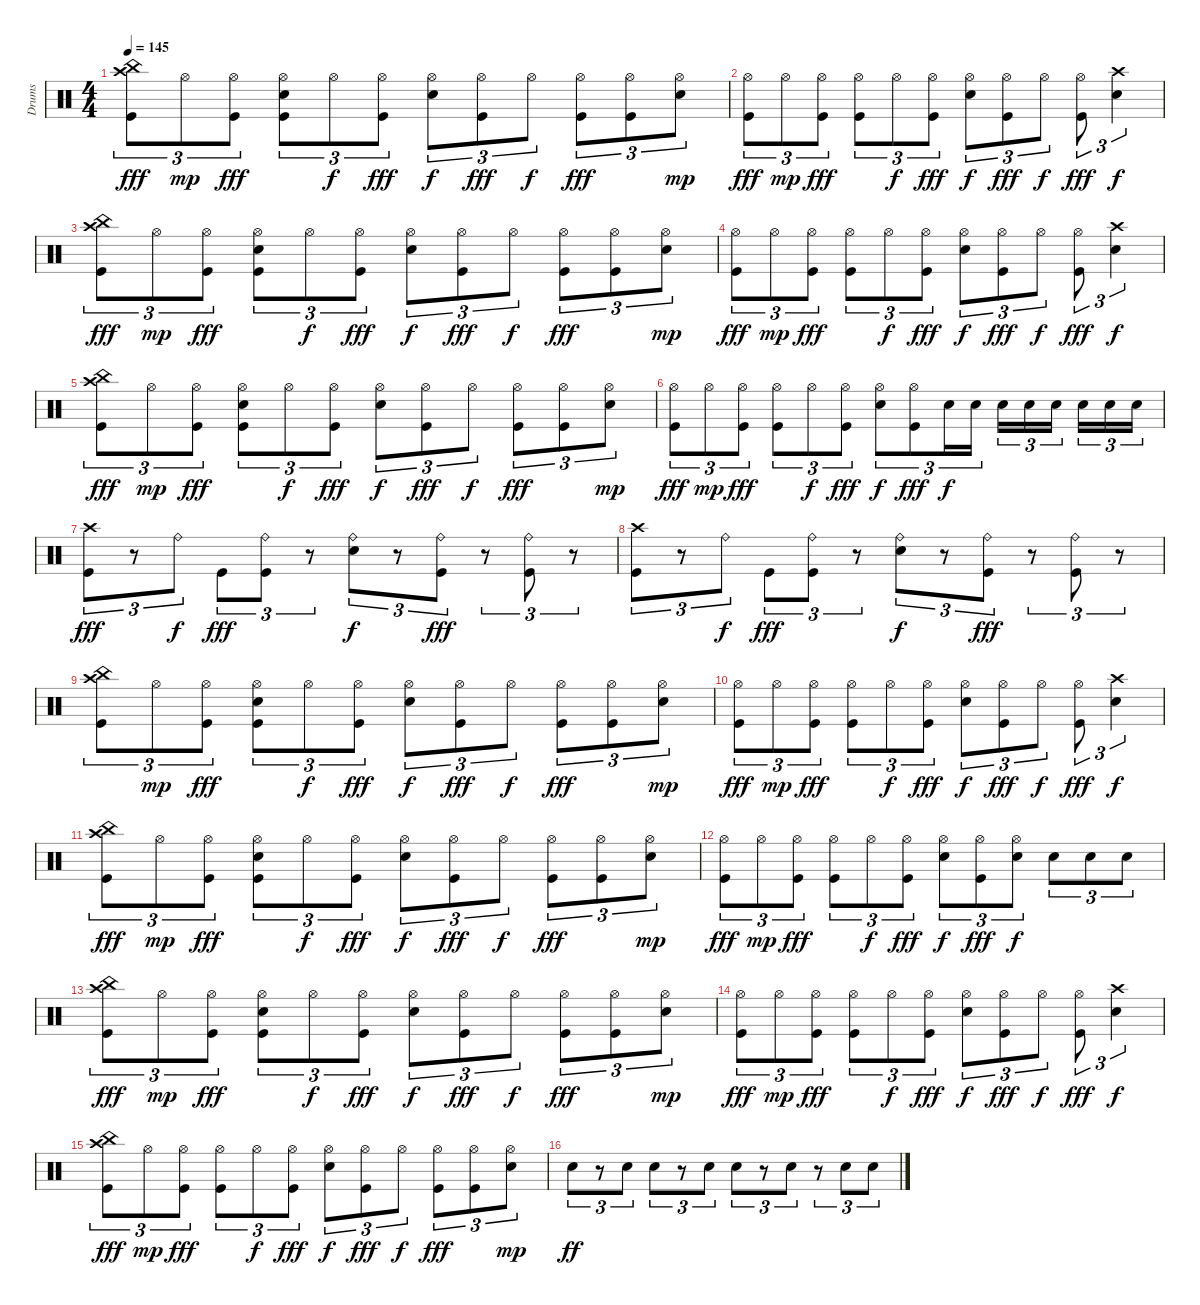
\track ("Drums" "Drums") {instrument percussion}
\staff {score}
\articulation defaults
\ts (4 4)
\tempo 145
\clef neutral
\ks c
("Crash high (hit)" "China (hit)" "Kick (hit)").8{tu (3 2) dy fff} "Hi-Hat (open)".8{tu (3 2) dy mp} ("Hi-Hat (open)" "Kick (hit)").8{tu (3 2) dy fff} ("Hi-Hat (open)" "Snare (hit)" "Kick (hit)").8{tu (3 2)} "Hi-Hat (open)".8{tu (3 2) dy f} ("Hi-Hat (open)" "Kick (hit)").8{tu (3 2) dy fff} ("Hi-Hat (open)" "Electric Snare (hit)").8{tu (3 2) dy f} ("Hi-Hat (open)" "Kick (hit)").8{tu (3 2) dy fff} "Hi-Hat (open)".8{tu (3 2) dy f} ("Hi-Hat (open)" "Kick (hit)").8{tu (3 2) dy fff} ("Hi-Hat (open)" "Kick (hit)").8{tu (3 2)} ("Hi-Hat (open)" "Electric Snare (hit)").8{tu (3 2) dy mp} |
("Hi-Hat (open)" "Kick (hit)").8{tu (3 2) dy fff} "Hi-Hat (open)".8{tu (3 2) dy mp} ("Hi-Hat (open)" "Kick (hit)").8{tu (3 2) dy fff} ("Hi-Hat (open)" "Kick (hit)").8{tu (3 2)} "Hi-Hat (open)".8{tu (3 2) dy f} ("Hi-Hat (open)" "Kick (hit)").8{tu (3 2) dy fff} ("Hi-Hat (open)" "Electric Snare (hit)").8{tu (3 2) dy f} ("Hi-Hat (open)" "Kick (hit)").8{tu (3 2) dy fff} "Hi-Hat (open)".8{tu (3 2) dy f} ("Hi-Hat (open)" "Kick (hit)").8{tu (3 2) dy fff} ("Crash high (hit)" "Electric Snare (hit)").4{tu (3 2) dy f} |
("Crash high (hit)" "China (hit)" "Kick (hit)").8{tu (3 2) dy fff} "Hi-Hat (open)".8{tu (3 2) dy mp} ("Hi-Hat (open)" "Kick (hit)").8{tu (3 2) dy fff} ("Hi-Hat (open)" "Snare (hit)" "Kick (hit)").8{tu (3 2)} "Hi-Hat (open)".8{tu (3 2) dy f} ("Hi-Hat (open)" "Kick (hit)").8{tu (3 2) dy fff} ("Hi-Hat (open)" "Electric Snare (hit)").8{tu (3 2) dy f} ("Hi-Hat (open)" "Kick (hit)").8{tu (3 2) dy fff} "Hi-Hat (open)".8{tu (3 2) dy f} ("Hi-Hat (open)" "Kick (hit)").8{tu (3 2) dy fff} ("Hi-Hat (open)" "Kick (hit)").8{tu (3 2)} ("Hi-Hat (open)" "Electric Snare (hit)").8{tu (3 2) dy mp} |
("Hi-Hat (open)" "Kick (hit)").8{tu (3 2) dy fff} "Hi-Hat (open)".8{tu (3 2) dy mp} ("Hi-Hat (open)" "Kick (hit)").8{tu (3 2) dy fff} ("Hi-Hat (open)" "Kick (hit)").8{tu (3 2)} "Hi-Hat (open)".8{tu (3 2) dy f} ("Hi-Hat (open)" "Kick (hit)").8{tu (3 2) dy fff} ("Hi-Hat (open)" "Electric Snare (hit)").8{tu (3 2) dy f} ("Hi-Hat (open)" "Kick (hit)").8{tu (3 2) dy fff} "Hi-Hat (open)".8{tu (3 2) dy f} ("Hi-Hat (open)" "Kick (hit)").8{tu (3 2) dy fff} ("Crash high (hit)" "Electric Snare (hit)").4{tu (3 2) dy f} |
("Crash high (hit)" "China (hit)" "Kick (hit)").8{tu (3 2) dy fff} "Hi-Hat (open)".8{tu (3 2) dy mp} ("Hi-Hat (open)" "Kick (hit)").8{tu (3 2) dy fff} ("Hi-Hat (open)" "Snare (hit)" "Kick (hit)").8{tu (3 2)} "Hi-Hat (open)".8{tu (3 2) dy f} ("Hi-Hat (open)" "Kick (hit)").8{tu (3 2) dy fff} ("Hi-Hat (open)" "Electric Snare (hit)").8{tu (3 2) dy f} ("Hi-Hat (open)" "Kick (hit)").8{tu (3 2) dy fff} "Hi-Hat (open)".8{tu (3 2) dy f} ("Hi-Hat (open)" "Kick (hit)").8{tu (3 2) dy fff} ("Hi-Hat (open)" "Kick (hit)").8{tu (3 2)} ("Hi-Hat (open)" "Electric Snare (hit)").8{tu (3 2) dy mp} |
("Hi-Hat (open)" "Kick (hit)").8{tu (3 2) dy fff} "Hi-Hat (open)".8{tu (3 2) dy mp} ("Hi-Hat (open)" "Kick (hit)").8{tu (3 2) dy fff} ("Hi-Hat (open)" "Kick (hit)").8{tu (3 2)} "Hi-Hat (open)".8{tu (3 2) dy f} ("Hi-Hat (open)" "Kick (hit)").8{tu (3 2) dy fff} ("Hi-Hat (open)" "Electric Snare (hit)").8{tu (3 2) dy f} ("Hi-Hat (open)" "Kick (hit)").8{tu (3 2) dy fff} "Electric Snare (hit)".16{tu (3 2) dy f} "Electric Snare (hit)".16{tu (3 2)} "Electric Snare (hit)".16{tu (3 2)} "Electric Snare (hit)".16{tu (3 2)} "Electric Snare (hit)".16{tu (3 2)} "Electric Snare (hit)".16{tu (3 2)} "Electric Snare (hit)".16{tu (3 2)} "Electric Snare (hit)".16{tu (3 2)} |
("Crash high (hit)" "Kick (hit)").8{tu (3 2) dy fff} r.8{tu (3 2)} "Ride (bell)".8{tu (3 2) dy f} "Kick (hit)".8{tu (3 2) dy fff} ("Ride (bell)" "Kick (hit)").8{tu (3 2)} r.8{tu (3 2)} ("Ride (bell)" "Electric Snare (hit)").8{tu (3 2) dy f} r.8{tu (3 2)} ("Ride (bell)" "Kick (hit)").8{tu (3 2) dy fff} r.8{tu (3 2)} ("Ride (bell)" "Kick (hit)").8{tu (3 2)} r.8{tu (3 2)} |
("Crash high (hit)" "Kick (hit)").8{tu (3 2)} r.8{tu (3 2)} "Ride (bell)".8{tu (3 2) dy f} "Kick (hit)".8{tu (3 2) dy fff} ("Ride (bell)" "Kick (hit)").8{tu (3 2)} r.8{tu (3 2)} ("Ride (bell)" "Electric Snare (hit)").8{tu (3 2) dy f} r.8{tu (3 2)} ("Ride (bell)" "Kick (hit)").8{tu (3 2) dy fff} r.8{tu (3 2)} ("Ride (bell)" "Kick (hit)").8{tu (3 2)} r.8{tu (3 2)} |
("Crash high (hit)" "China (hit)" "Kick (hit)").8{tu (3 2)} "Hi-Hat (open)".8{tu (3 2) dy mp} ("Hi-Hat (open)" "Kick (hit)").8{tu (3 2) dy fff} ("Hi-Hat (open)" "Snare (hit)" "Kick (hit)").8{tu (3 2)} "Hi-Hat (open)".8{tu (3 2) dy f} ("Hi-Hat (open)" "Kick (hit)").8{tu (3 2) dy fff} ("Hi-Hat (open)" "Electric Snare (hit)").8{tu (3 2) dy f} ("Hi-Hat (open)" "Kick (hit)").8{tu (3 2) dy fff} "Hi-Hat (open)".8{tu (3 2) dy f} ("Hi-Hat (open)" "Kick (hit)").8{tu (3 2) dy fff} ("Hi-Hat (open)" "Kick (hit)").8{tu (3 2)} ("Hi-Hat (open)" "Electric Snare (hit)").8{tu (3 2) dy mp} |
("Hi-Hat (open)" "Kick (hit)").8{tu (3 2) dy fff} "Hi-Hat (open)".8{tu (3 2) dy mp} ("Hi-Hat (open)" "Kick (hit)").8{tu (3 2) dy fff} ("Hi-Hat (open)" "Kick (hit)").8{tu (3 2)} "Hi-Hat (open)".8{tu (3 2) dy f} ("Hi-Hat (open)" "Kick (hit)").8{tu (3 2) dy fff} ("Hi-Hat (open)" "Electric Snare (hit)").8{tu (3 2) dy f} ("Hi-Hat (open)" "Kick (hit)").8{tu (3 2) dy fff} "Hi-Hat (open)".8{tu (3 2) dy f} ("Hi-Hat (open)" "Kick (hit)").8{tu (3 2) dy fff} ("Crash high (hit)" "Electric Snare (hit)").4{tu (3 2) dy f} |
("Crash high (hit)" "China (hit)" "Kick (hit)").8{tu (3 2) dy fff} "Hi-Hat (open)".8{tu (3 2) dy mp} ("Hi-Hat (open)" "Kick (hit)").8{tu (3 2) dy fff} ("Hi-Hat (open)" "Snare (hit)" "Kick (hit)").8{tu (3 2)} "Hi-Hat (open)".8{tu (3 2) dy f} ("Hi-Hat (open)" "Kick (hit)").8{tu (3 2) dy fff} ("Hi-Hat (open)" "Electric Snare (hit)").8{tu (3 2) dy f} ("Hi-Hat (open)" "Kick (hit)").8{tu (3 2) dy fff} "Hi-Hat (open)".8{tu (3 2) dy f} ("Hi-Hat (open)" "Kick (hit)").8{tu (3 2) dy fff} ("Hi-Hat (open)" "Kick (hit)").8{tu (3 2)} ("Hi-Hat (open)" "Electric Snare (hit)").8{tu (3 2) dy mp} |
("Hi-Hat (open)" "Kick (hit)").8{tu (3 2) dy fff} "Hi-Hat (open)".8{tu (3 2) dy mp} ("Hi-Hat (open)" "Kick (hit)").8{tu (3 2) dy fff} ("Hi-Hat (open)" "Kick (hit)").8{tu (3 2)} "Hi-Hat (open)".8{tu (3 2) dy f} ("Hi-Hat (open)" "Kick (hit)").8{tu (3 2) dy fff} ("Hi-Hat (open)" "Electric Snare (hit)").8{tu (3 2) dy f} ("Hi-Hat (open)" "Kick (hit)").8{tu (3 2) dy fff} ("Hi-Hat (open)" "Electric Snare (hit)").8{tu (3 2) dy f} "Electric Snare (hit)".8{tu (3 2)} "Electric Snare (hit)".8{tu (3 2)} "Electric Snare (hit)".8{tu (3 2)} |
("Crash high (hit)" "China (hit)" "Kick (hit)").8{tu (3 2) dy fff} "Hi-Hat (open)".8{tu (3 2) dy mp} ("Hi-Hat (open)" "Kick (hit)").8{tu (3 2) dy fff} ("Hi-Hat (open)" "Snare (hit)" "Kick (hit)").8{tu (3 2)} "Hi-Hat (open)".8{tu (3 2) dy f} ("Hi-Hat (open)" "Kick (hit)").8{tu (3 2) dy fff} ("Hi-Hat (open)" "Electric Snare (hit)").8{tu (3 2) dy f} ("Hi-Hat (open)" "Kick (hit)").8{tu (3 2) dy fff} "Hi-Hat (open)".8{tu (3 2) dy f} ("Hi-Hat (open)" "Kick (hit)").8{tu (3 2) dy fff} ("Hi-Hat (open)" "Kick (hit)").8{tu (3 2)} ("Hi-Hat (open)" "Electric Snare (hit)").8{tu (3 2) dy mp} |
("Hi-Hat (open)" "Kick (hit)").8{tu (3 2) dy fff} "Hi-Hat (open)".8{tu (3 2) dy mp} ("Hi-Hat (open)" "Kick (hit)").8{tu (3 2) dy fff} ("Hi-Hat (open)" "Kick (hit)").8{tu (3 2)} "Hi-Hat (open)".8{tu (3 2) dy f} ("Hi-Hat (open)" "Kick (hit)").8{tu (3 2) dy fff} ("Hi-Hat (open)" "Electric Snare (hit)").8{tu (3 2) dy f} ("Hi-Hat (open)" "Kick (hit)").8{tu (3 2) dy fff} "Hi-Hat (open)".8{tu (3 2) dy f} ("Hi-Hat (open)" "Kick (hit)").8{tu (3 2) dy fff} ("Crash high (hit)" "Electric Snare (hit)").4{tu (3 2) dy f} |
("Crash high (hit)" "China (hit)" "Kick (hit)").8{tu (3 2) dy fff} "Hi-Hat (open)".8{tu (3 2) dy mp} ("Hi-Hat (open)" "Kick (hit)").8{tu (3 2) dy fff} ("Hi-Hat (open)" "Kick (hit)").8{tu (3 2)} "Hi-Hat (open)".8{tu (3 2) dy f} ("Hi-Hat (open)" "Kick (hit)").8{tu (3 2) dy fff} ("Hi-Hat (open)" "Electric Snare (hit)").8{tu (3 2) dy f} ("Hi-Hat (open)" "Kick (hit)").8{tu (3 2) dy fff} "Hi-Hat (open)".8{tu (3 2) dy f} ("Hi-Hat (open)" "Kick (hit)").8{tu (3 2) dy fff} ("Hi-Hat (open)" "Kick (hit)").8{tu (3 2)} ("Hi-Hat (open)" "Electric Snare (hit)").8{tu (3 2) dy mp} |
"Electric Snare (hit)".8{tu (3 2) dy ff} r.8{tu (3 2)} "Electric Snare (hit)".8{tu (3 2)} "Electric Snare (hit)".8{tu (3 2)} r.8{tu (3 2)} "Electric Snare (hit)".8{tu (3 2)} "Electric Snare (hit)".8{tu (3 2)} r.8{tu (3 2)} "Electric Snare (hit)".8{tu (3 2)} r.8{tu (3 2)} "Electric Snare (hit)".8{tu (3 2)} "Electric Snare (hit)".8{tu (3 2)}
